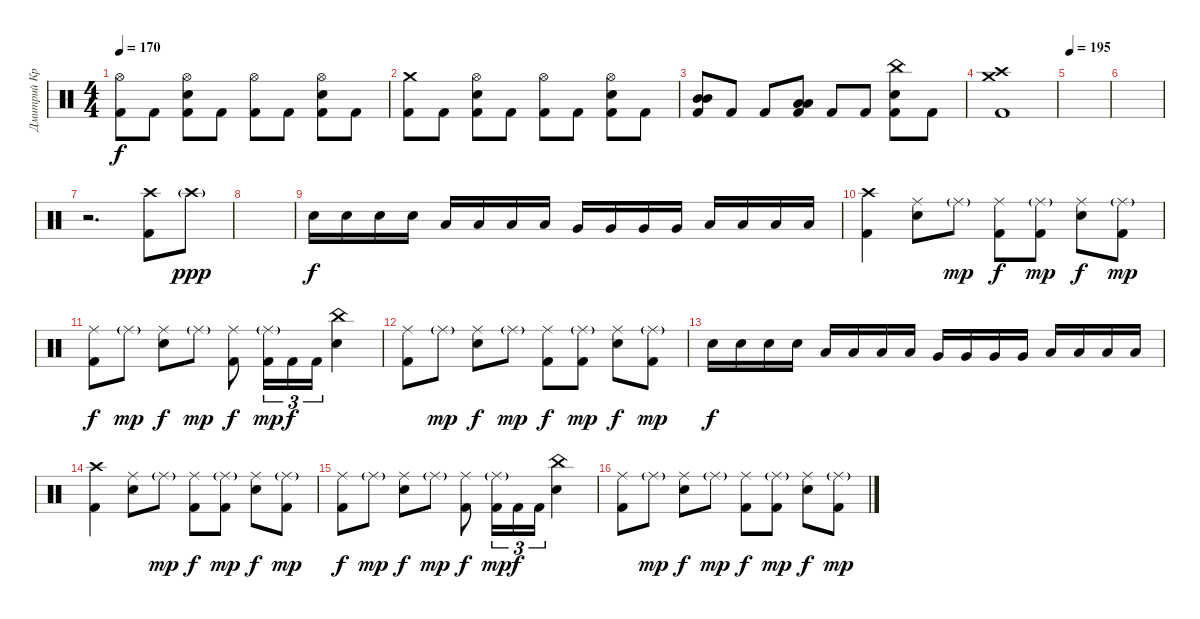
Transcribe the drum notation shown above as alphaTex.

\track ("Дмитрий Кривенков" "Дмитрий Кр") {instrument percussion}
\staff {score}
\articulation defaults
\ts (4 4)
\tempo 170
\clef neutral
\ks c
("Hi-Hat (open)" "Kick (hit) 2").8{dy f} "Kick (hit) 2".8 ("Hi-Hat (open)" "Electric Snare (hit)" "Kick (hit) 2").8 "Kick (hit) 2".8 ("Hi-Hat (open)" "Kick (hit) 2").8 "Kick (hit) 2".8 ("Hi-Hat (open)" "Electric Snare (hit)" "Kick (hit) 2").8 "Kick (hit) 2".8 |
("Crash medium (hit)" "Kick (hit) 2").8 "Kick (hit) 2".8 ("Hi-Hat (open)" "Electric Snare (hit)" "Kick (hit) 2").8 "Kick (hit) 2".8 ("Hi-Hat (open)" "Kick (hit) 2").8 "Kick (hit) 2".8 ("Hi-Hat (open)" "Electric Snare (hit)" "Kick (hit) 2").8 "Kick (hit) 2".8 |
("Mid Tom (hit)" "Mid Tom (hit)" "Kick (hit) 2").8 "Kick (hit) 2".8 "Kick (hit) 2".8 ("Low Tom (hit)" "Low Tom (hit)" "Kick (hit) 2").8 "Kick (hit) 2".8 "Kick (hit) 2".8 ("China (hit)" "Electric Snare (hit)" "Kick (hit) 2").8 "Kick (hit) 2".8 |
("Crash medium (hit)" "Crash high (hit)" "Kick (hit) 2").1 |
\tempo 195
|
|
r.2{d} ("Crash high (hit)" "Kick (hit) 2").8 "Crash high (hit)"{g}.8{dy ppp} |
|
"Electric Snare (hit)".16{dy f} "Electric Snare (hit)".16 "Electric Snare (hit)".16 "Electric Snare (hit)".16 "Low Tom (hit)".16 "Low Tom (hit)".16 "Low Tom (hit)".16 "Low Tom (hit)".16 "Very Low Tom (hit)".16 "Very Low Tom (hit)".16 "Very Low Tom (hit)".16 "Very Low Tom (hit)".16 "Low Floor Tom (hit)".16 "Low Floor Tom (hit)".16 "Low Floor Tom (hit)".16 "Low Floor Tom (hit)".16 |
("Crash high (hit)" "Kick (hit) 2").4 ("Ride (middle)" "Electric Snare (hit)").8 "Ride (middle)"{g}.8{dy mp} ("Ride (middle)" "Kick (hit) 2").8{dy f} ("Ride (middle)"{g} "Kick (hit) 2").8{dy mp} ("Ride (middle)" "Electric Snare (hit)").8{dy f} ("Ride (middle)"{g} "Kick (hit) 2").8{dy mp} |
("Ride (middle)" "Kick (hit) 2").8{dy f} "Ride (middle)"{g}.8{dy mp} ("Ride (middle)" "Electric Snare (hit)").8{dy f} "Ride (middle)"{g}.8{dy mp} ("Ride (middle)" "Kick (hit) 2").8{dy f} ("Ride (middle)"{g} "Kick (hit) 2").16{tu (3 2) dy mp} "Kick (hit) 2".16{tu (3 2) dy f} "Kick (hit) 2".16{tu (3 2)} ("China (hit)" "Electric Snare (hit)").4 |
("Ride (middle)" "Kick (hit) 2").8 "Ride (middle)"{g}.8{dy mp} ("Ride (middle)" "Electric Snare (hit)").8{dy f} "Ride (middle)"{g}.8{dy mp} ("Ride (middle)" "Kick (hit) 2").8{dy f} ("Ride (middle)"{g} "Kick (hit) 2").8{dy mp} ("Ride (middle)" "Electric Snare (hit)").8{dy f} ("Ride (middle)"{g} "Kick (hit) 2").8{dy mp} |
"Electric Snare (hit)".16{dy f} "Electric Snare (hit)".16 "Electric Snare (hit)".16 "Electric Snare (hit)".16 "Low Tom (hit)".16 "Low Tom (hit)".16 "Low Tom (hit)".16 "Low Tom (hit)".16 "Very Low Tom (hit)".16 "Very Low Tom (hit)".16 "Very Low Tom (hit)".16 "Very Low Tom (hit)".16 "Low Floor Tom (hit)".16 "Low Floor Tom (hit)".16 "Low Floor Tom (hit)".16 "Low Floor Tom (hit)".16 |
("Crash high (hit)" "Kick (hit) 2").4 ("Ride (middle)" "Electric Snare (hit)").8 "Ride (middle)"{g}.8{dy mp} ("Ride (middle)" "Kick (hit) 2").8{dy f} ("Ride (middle)"{g} "Kick (hit) 2").8{dy mp} ("Ride (middle)" "Electric Snare (hit)").8{dy f} ("Ride (middle)"{g} "Kick (hit) 2").8{dy mp} |
("Ride (middle)" "Kick (hit) 2").8{dy f} "Ride (middle)"{g}.8{dy mp} ("Ride (middle)" "Electric Snare (hit)").8{dy f} "Ride (middle)"{g}.8{dy mp} ("Ride (middle)" "Kick (hit) 2").8{dy f} ("Ride (middle)"{g} "Kick (hit) 2").16{tu (3 2) dy mp} "Kick (hit) 2".16{tu (3 2) dy f} "Kick (hit) 2".16{tu (3 2)} ("China (hit)" "Electric Snare (hit)").4 |
("Ride (middle)" "Kick (hit) 2").8 "Ride (middle)"{g}.8{dy mp} ("Ride (middle)" "Electric Snare (hit)").8{dy f} "Ride (middle)"{g}.8{dy mp} ("Ride (middle)" "Kick (hit) 2").8{dy f} ("Ride (middle)"{g} "Kick (hit) 2").8{dy mp} ("Ride (middle)" "Electric Snare (hit)").8{dy f} ("Ride (middle)"{g} "Kick (hit) 2").8{dy mp}
